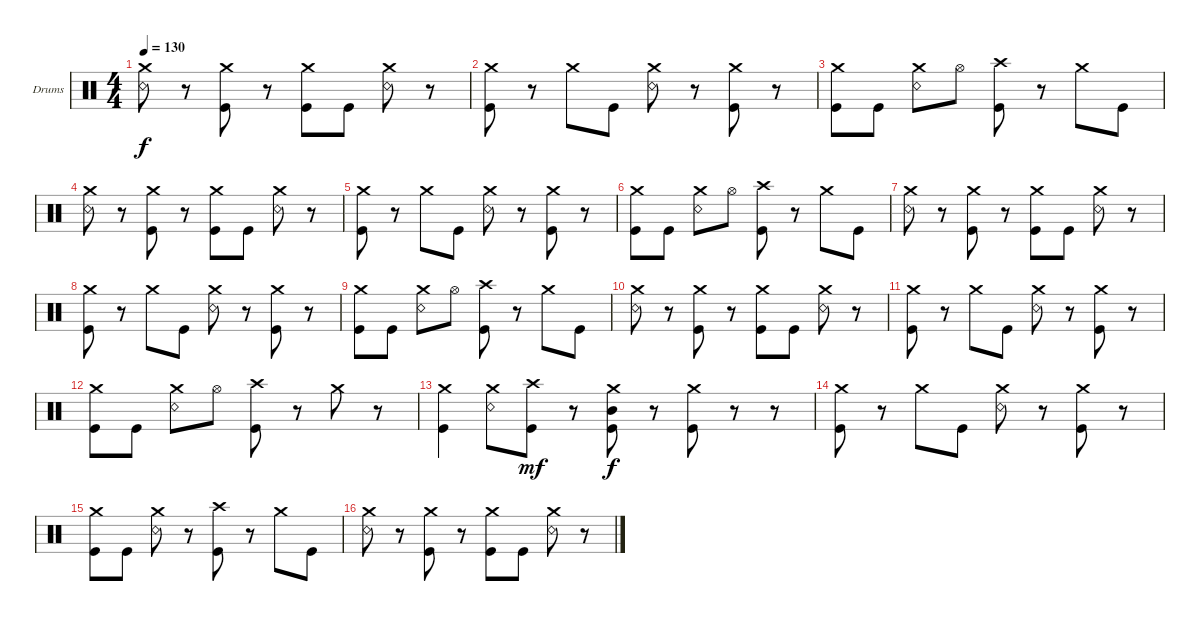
\bracketExtendMode groupsimilarinstruments
\firstSystemTrackNameOrientation horizontal
\otherSystemsTrackNameOrientation horizontal
\track ("Drumkit" "Drums") {instrument percussion}
\staff {score}
\articulation defaults
\ts (4 4)
\tempo 130
\clef neutral
\scale
0.333333
\ks c
("Snare (rim shot)" "Crash medium (hit)").8{dy f} r.8 ("Kick (hit)" "Crash medium (hit)").8 r.8 ("Kick (hit)" "Crash medium (hit)").8 "Kick (hit)".8 ("Snare (rim shot)" "Crash medium (hit)").8 r.8 |
\scale
0.333333 ("Kick (hit)" "Crash medium (hit)").8 r.8 "Crash medium (hit)".8 "Kick (hit)".8 ("Snare (rim shot)" "Crash medium (hit)").8 r.8 ("Kick (hit)" "Crash medium (hit)").8 r.8 |
\scale
0.333333 ("Kick (hit)" "Crash medium (hit)").8 "Kick (hit)".8 ("Snare (rim shot)" "Crash medium (hit)").8 "Hi-Hat (open)".8 ("Kick (hit)" "Crash high (hit)").8 r.8 "Crash medium (hit)".8 "Kick (hit)".8 |
\scale
0.333333 ("Snare (rim shot)" "Crash medium (hit)").8 r.8 ("Kick (hit)" "Crash medium (hit)").8 r.8 ("Kick (hit)" "Crash medium (hit)").8 "Kick (hit)".8 ("Snare (rim shot)" "Crash medium (hit)").8 r.8 |
\scale
0.333333 ("Kick (hit)" "Crash medium (hit)").8 r.8 "Crash medium (hit)".8 "Kick (hit)".8 ("Snare (rim shot)" "Crash medium (hit)").8 r.8 ("Kick (hit)" "Crash medium (hit)").8 r.8 |
\scale
0.333333 ("Kick (hit)" "Crash medium (hit)").8 "Kick (hit)".8 ("Snare (rim shot)" "Crash medium (hit)").8 "Hi-Hat (open)".8 ("Kick (hit)" "Crash high (hit)").8 r.8 "Crash medium (hit)".8 "Kick (hit)".8 |
\scale
0.333333 ("Snare (rim shot)" "Crash medium (hit)").8 r.8 ("Kick (hit)" "Crash medium (hit)").8 r.8 ("Kick (hit)" "Crash medium (hit)").8 "Kick (hit)".8 ("Snare (rim shot)" "Crash medium (hit)").8 r.8 |
\scale
0.333333 ("Kick (hit)" "Crash medium (hit)").8 r.8 "Crash medium (hit)".8 "Kick (hit)".8 ("Snare (rim shot)" "Crash medium (hit)").8 r.8 ("Kick (hit)" "Crash medium (hit)").8 r.8 |
\scale
0.333333 ("Kick (hit)" "Crash medium (hit)").8 "Kick (hit)".8 ("Snare (rim shot)" "Crash medium (hit)").8 "Hi-Hat (open)".8 ("Kick (hit)" "Crash high (hit)").8 r.8 "Crash medium (hit)".8 "Kick (hit)".8 |
("Snare (rim shot)" "Crash medium (hit)").8 r.8 ("Kick (hit)" "Crash medium (hit)").8 r.8 ("Kick (hit)" "Crash medium (hit)").8 "Kick (hit)".8 ("Snare (rim shot)" "Crash medium (hit)").8 r.8 |
\scale
0.333333 ("Kick (hit)" "Crash medium (hit)").8 r.8 "Crash medium (hit)".8 "Kick (hit)".8 ("Snare (rim shot)" "Crash medium (hit)").8 r.8 ("Kick (hit)" "Crash medium (hit)").8 r.8 |
\scale
0.333333 ("Kick (hit)" "Crash medium (hit)").8 "Kick (hit)".8 ("Snare (rim shot)" "Crash medium (hit)").8 "Hi-Hat (open)".8 ("Kick (hit)" "Crash high (hit)").8 r.8 "Crash medium (hit)".8 r.8 |
\scale
0.333333 ("Kick (hit)" "Crash medium (hit)").4 ("Crash medium (hit)" "Snare (rim shot)").8 ("Kick (hit)" "Crash high (hit)").8{dy mf} r.8 ("Kick (hit)" "Crash medium (hit)" "Mid Tom (hit)").8{dy f} r.8 ("Kick (hit)" "Crash medium (hit)").8 r.8 r.8 |
\scale
0.333333 ("Kick (hit)" "Crash medium (hit)").8 r.8 "Crash medium (hit)".8 "Kick (hit)".8 ("Snare (rim shot)" "Crash medium (hit)").8 r.8 ("Kick (hit)" "Crash medium (hit)").8 r.8 |
\scale
0.333333 ("Kick (hit)" "Crash medium (hit)").8 "Kick (hit)".8 ("Snare (rim shot)" "Crash medium (hit)").8 r.8 ("Kick (hit)" "Crash high (hit)").8 r.8 "Crash medium (hit)".8 "Kick (hit)".8 |
\scale
0.333333 ("Snare (rim shot)" "Crash medium (hit)").8 r.8 ("Kick (hit)" "Crash medium (hit)").8 r.8 ("Kick (hit)" "Crash medium (hit)").8 "Kick (hit)".8 ("Snare (rim shot)" "Crash medium (hit)").8 r.8
